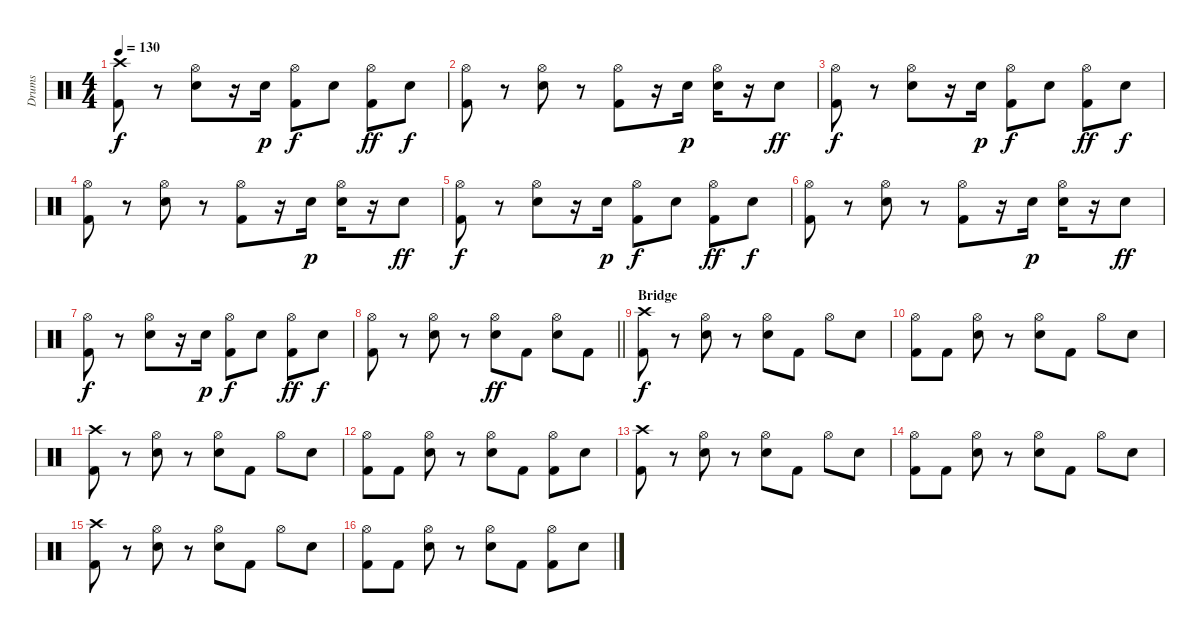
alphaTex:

\track ("Drums" "Drums") {instrument percussion}
\staff {score}
\articulation defaults
\ts (4 4)
\tempo 130
\clef neutral
\ks c
("Crash high (hit)" "Kick (hit) 2").8{dy f} r.8 ("Hi-Hat (open)" "Snare (hit) 2").8 r.16 "Snare (hit) 2".16{dy p} ("Hi-Hat (open)" "Kick (hit) 2").8{dy f} "Snare (hit) 2".8 ("Hi-Hat (open)" "Kick (hit) 2").8{dy ff} "Snare (hit) 2".8{dy f} |
("Hi-Hat (open)" "Kick (hit) 2").8 r.8 ("Hi-Hat (open)" "Snare (hit) 2").8 r.8 ("Hi-Hat (open)" "Kick (hit) 2").8 r.16 "Snare (hit) 2".16{dy p} ("Hi-Hat (open)" "Snare (hit) 2").16 r.16 "Snare (hit) 2".8{dy ff} |
("Hi-Hat (open)" "Kick (hit) 2").8{dy f} r.8 ("Hi-Hat (open)" "Snare (hit) 2").8 r.16 "Snare (hit) 2".16{dy p} ("Hi-Hat (open)" "Kick (hit) 2").8{dy f} "Snare (hit) 2".8 ("Hi-Hat (open)" "Kick (hit) 2").8{dy ff} "Snare (hit) 2".8{dy f} |
("Hi-Hat (open)" "Kick (hit) 2").8 r.8 ("Hi-Hat (open)" "Snare (hit) 2").8 r.8 ("Hi-Hat (open)" "Kick (hit) 2").8 r.16 "Snare (hit) 2".16{dy p} ("Hi-Hat (open)" "Snare (hit) 2").16 r.16 "Snare (hit) 2".8{dy ff} |
("Hi-Hat (open)" "Kick (hit) 2").8{dy f} r.8 ("Hi-Hat (open)" "Snare (hit) 2").8 r.16 "Snare (hit) 2".16{dy p} ("Hi-Hat (open)" "Kick (hit) 2").8{dy f} "Snare (hit) 2".8 ("Hi-Hat (open)" "Kick (hit) 2").8{dy ff} "Snare (hit) 2".8{dy f} |
("Hi-Hat (open)" "Kick (hit) 2").8 r.8 ("Hi-Hat (open)" "Snare (hit) 2").8 r.8 ("Hi-Hat (open)" "Kick (hit) 2").8 r.16 "Snare (hit) 2".16{dy p} ("Hi-Hat (open)" "Snare (hit) 2").16 r.16 "Snare (hit) 2".8{dy ff} |
("Hi-Hat (open)" "Kick (hit) 2").8{dy f} r.8 ("Hi-Hat (open)" "Snare (hit) 2").8 r.16 "Snare (hit) 2".16{dy p} ("Hi-Hat (open)" "Kick (hit) 2").8{dy f} "Snare (hit) 2".8 ("Hi-Hat (open)" "Kick (hit) 2").8{dy ff} "Snare (hit) 2".8{dy f} |
\barLineRight lightlight
("Hi-Hat (open)" "Kick (hit) 2").8 r.8 ("Hi-Hat (open)" "Snare (hit) 2").8 r.8 ("Hi-Hat (open)" "Snare (hit) 2").8{dy ff} "Kick (hit) 2".8 ("Hi-Hat (open)" "Snare (hit) 2").8 "Kick (hit) 2".8 |
\section ("" "Bridge")
("Crash high (hit)" "Kick (hit) 2").8{dy f} r.8 ("Hi-Hat (open)" "Snare (hit) 2").8 r.8 ("Hi-Hat (open)" "Snare (hit) 2").8 "Kick (hit) 2".8 "Hi-Hat (open)".8 "Snare (hit) 2".8 |
("Hi-Hat (open)" "Kick (hit) 2").8 "Kick (hit) 2".8 ("Hi-Hat (open)" "Snare (hit) 2").8 r.8 ("Hi-Hat (open)" "Snare (hit) 2").8 "Kick (hit) 2".8 "Hi-Hat (open)".8 "Snare (hit) 2".8 |
("Crash high (hit)" "Kick (hit) 2").8 r.8 ("Hi-Hat (open)" "Snare (hit) 2").8 r.8 ("Hi-Hat (open)" "Snare (hit) 2").8 "Kick (hit) 2".8 "Hi-Hat (open)".8 "Snare (hit) 2".8 |
("Hi-Hat (open)" "Kick (hit) 2").8 "Kick (hit) 2".8 ("Hi-Hat (open)" "Snare (hit) 2").8 r.8 ("Hi-Hat (open)" "Snare (hit) 2").8 "Kick (hit) 2".8 ("Hi-Hat (open)" "Kick (hit) 2").8 "Snare (hit) 2".8 |
("Crash high (hit)" "Kick (hit) 2").8 r.8 ("Hi-Hat (open)" "Snare (hit) 2").8 r.8 ("Hi-Hat (open)" "Snare (hit) 2").8 "Kick (hit) 2".8 "Hi-Hat (open)".8 "Snare (hit) 2".8 |
("Hi-Hat (open)" "Kick (hit) 2").8 "Kick (hit) 2".8 ("Hi-Hat (open)" "Snare (hit) 2").8 r.8 ("Hi-Hat (open)" "Snare (hit) 2").8 "Kick (hit) 2".8 "Hi-Hat (open)".8 "Snare (hit) 2".8 |
("Crash high (hit)" "Kick (hit) 2").8 r.8 ("Hi-Hat (open)" "Snare (hit) 2").8 r.8 ("Hi-Hat (open)" "Snare (hit) 2").8 "Kick (hit) 2".8 "Hi-Hat (open)".8 "Snare (hit) 2".8 |
("Hi-Hat (open)" "Kick (hit) 2").8 "Kick (hit) 2".8 ("Hi-Hat (open)" "Snare (hit) 2").8 r.8 ("Hi-Hat (open)" "Snare (hit) 2").8 "Kick (hit) 2".8 ("Hi-Hat (open)" "Kick (hit) 2").8 "Snare (hit) 2".8
